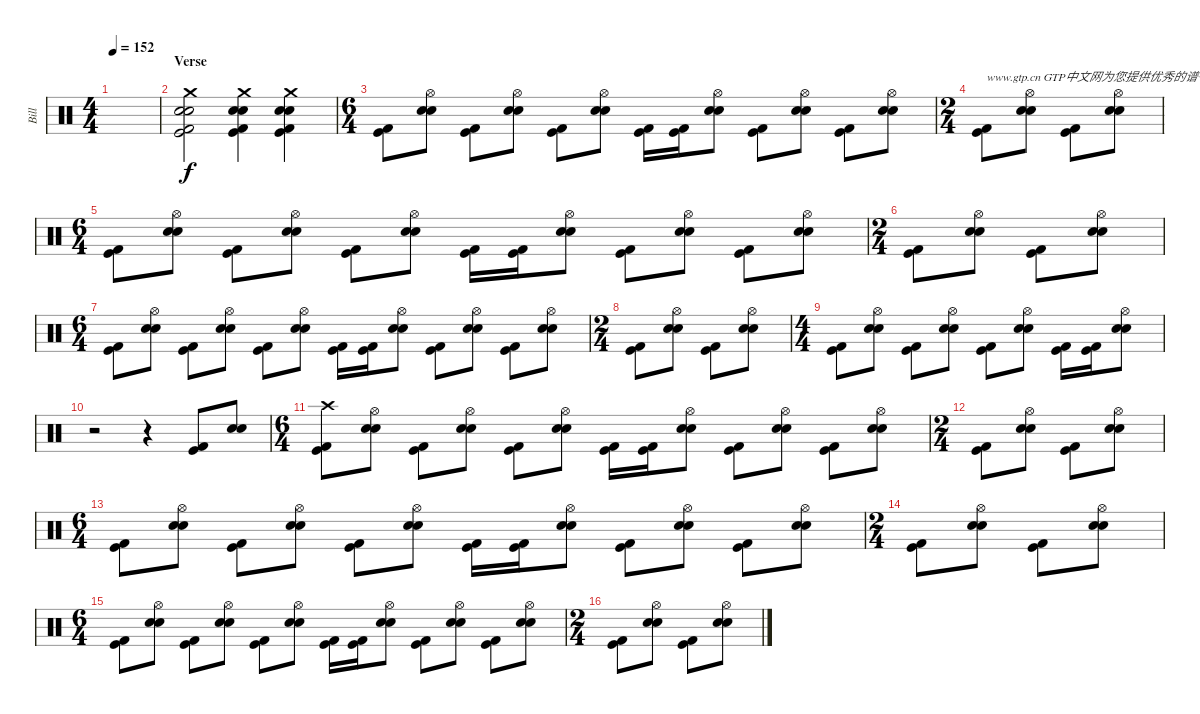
\track ("Bill" "Bill") {instrument percussion}
\staff {score}
\articulation defaults
\ts (4 4)
\tempo 152
\clef neutral
\ks c
|
\section ("" "Verse")
("Crash medium (hit)" "Snare (hit) 2" "Electric Snare (hit)" "Kick (hit)" "Kick (hit) 2").2 ("Crash medium (hit)" "Snare (hit) 2" "Electric Snare (hit)" "Kick (hit)" "Kick (hit) 2").4 ("Crash medium (hit)" "Snare (hit) 2" "Electric Snare (hit)" "Kick (hit)" "Kick (hit) 2").4 |
\ts (6 4)
("Kick (hit)" "Kick (hit) 2").8 ("Hi-Hat (open)" "Snare (hit) 2" "Electric Snare (hit)").8 ("Kick (hit)" "Kick (hit) 2").8 ("Hi-Hat (open)" "Snare (hit) 2" "Electric Snare (hit)").8 ("Kick (hit)" "Kick (hit) 2").8 ("Hi-Hat (open)" "Snare (hit) 2" "Electric Snare (hit)").8 ("Kick (hit)" "Kick (hit) 2").16 ("Kick (hit)" "Kick (hit) 2").16 ("Hi-Hat (open)" "Snare (hit) 2" "Electric Snare (hit)").8 ("Kick (hit)" "Kick (hit) 2").8 ("Hi-Hat (open)" "Snare (hit) 2" "Electric Snare (hit)").8 ("Kick (hit)" "Kick (hit) 2").8 ("Hi-Hat (open)" "Snare (hit) 2" "Electric Snare (hit)").8 |
\ts (2 4)
("Kick (hit)" "Kick (hit) 2").8{txt "www.gtp.cn GTP中文网为您提供优秀的谱子"} ("Hi-Hat (open)" "Snare (hit) 2" "Electric Snare (hit)").8 ("Kick (hit)" "Kick (hit) 2").8 ("Hi-Hat (open)" "Snare (hit) 2" "Electric Snare (hit)").8 |
\ts (6 4)
("Kick (hit)" "Kick (hit) 2").8 ("Hi-Hat (open)" "Snare (hit) 2" "Electric Snare (hit)").8 ("Kick (hit)" "Kick (hit) 2").8 ("Hi-Hat (open)" "Snare (hit) 2" "Electric Snare (hit)").8 ("Kick (hit)" "Kick (hit) 2").8 ("Hi-Hat (open)" "Snare (hit) 2" "Electric Snare (hit)").8 ("Kick (hit)" "Kick (hit) 2").16 ("Kick (hit)" "Kick (hit) 2").16 ("Hi-Hat (open)" "Snare (hit) 2" "Electric Snare (hit)").8 ("Kick (hit)" "Kick (hit) 2").8 ("Hi-Hat (open)" "Snare (hit) 2" "Electric Snare (hit)").8 ("Kick (hit)" "Kick (hit) 2").8 ("Hi-Hat (open)" "Snare (hit) 2" "Electric Snare (hit)").8 |
\ts (2 4)
("Kick (hit)" "Kick (hit) 2").8 ("Hi-Hat (open)" "Snare (hit) 2" "Electric Snare (hit)").8 ("Kick (hit)" "Kick (hit) 2").8 ("Hi-Hat (open)" "Snare (hit) 2" "Electric Snare (hit)").8 |
\ts (6 4)
("Kick (hit)" "Kick (hit) 2").8 ("Hi-Hat (open)" "Snare (hit) 2" "Electric Snare (hit)").8 ("Kick (hit)" "Kick (hit) 2").8 ("Hi-Hat (open)" "Snare (hit) 2" "Electric Snare (hit)").8 ("Kick (hit)" "Kick (hit) 2").8 ("Hi-Hat (open)" "Snare (hit) 2" "Electric Snare (hit)").8 ("Kick (hit)" "Kick (hit) 2").16 ("Kick (hit)" "Kick (hit) 2").16 ("Hi-Hat (open)" "Snare (hit) 2" "Electric Snare (hit)").8 ("Kick (hit)" "Kick (hit) 2").8 ("Hi-Hat (open)" "Snare (hit) 2" "Electric Snare (hit)").8 ("Kick (hit)" "Kick (hit) 2").8 ("Hi-Hat (open)" "Snare (hit) 2" "Electric Snare (hit)").8 |
\ts (2 4)
("Kick (hit)" "Kick (hit) 2").8 ("Hi-Hat (open)" "Snare (hit) 2" "Electric Snare (hit)").8 ("Kick (hit)" "Kick (hit) 2").8 ("Hi-Hat (open)" "Snare (hit) 2" "Electric Snare (hit)").8 |
\ts (4 4)
("Kick (hit)" "Kick (hit) 2").8 ("Hi-Hat (open)" "Snare (hit) 2" "Electric Snare (hit)").8 ("Kick (hit)" "Kick (hit) 2").8 ("Hi-Hat (open)" "Snare (hit) 2" "Electric Snare (hit)").8 ("Kick (hit)" "Kick (hit) 2").8 ("Hi-Hat (open)" "Snare (hit) 2" "Electric Snare (hit)").8 ("Kick (hit)" "Kick (hit) 2").16 ("Kick (hit)" "Kick (hit) 2").16 ("Hi-Hat (open)" "Snare (hit) 2" "Electric Snare (hit)").8 |
r.2 r.4 ("Kick (hit)" "Kick (hit) 2").8 ("Snare (hit) 2" "Electric Snare (hit)").8 |
\ts (6 4)
("Crash high (hit)" "Kick (hit)" "Kick (hit) 2").8 ("Hi-Hat (open)" "Snare (hit) 2" "Electric Snare (hit)").8 ("Kick (hit)" "Kick (hit) 2").8 ("Hi-Hat (open)" "Snare (hit) 2" "Electric Snare (hit)").8 ("Kick (hit)" "Kick (hit) 2").8 ("Hi-Hat (open)" "Snare (hit) 2" "Electric Snare (hit)").8 ("Kick (hit)" "Kick (hit) 2").16 ("Kick (hit)" "Kick (hit) 2").16 ("Hi-Hat (open)" "Snare (hit) 2" "Electric Snare (hit)").8 ("Kick (hit)" "Kick (hit) 2").8 ("Hi-Hat (open)" "Snare (hit) 2" "Electric Snare (hit)").8 ("Kick (hit)" "Kick (hit) 2").8 ("Hi-Hat (open)" "Snare (hit) 2" "Electric Snare (hit)").8 |
\ts (2 4)
("Kick (hit)" "Kick (hit) 2").8 ("Hi-Hat (open)" "Snare (hit) 2" "Electric Snare (hit)").8 ("Kick (hit)" "Kick (hit) 2").8 ("Hi-Hat (open)" "Snare (hit) 2" "Electric Snare (hit)").8 |
\ts (6 4)
("Kick (hit)" "Kick (hit) 2").8 ("Hi-Hat (open)" "Snare (hit) 2" "Electric Snare (hit)").8 ("Kick (hit)" "Kick (hit) 2").8 ("Hi-Hat (open)" "Snare (hit) 2" "Electric Snare (hit)").8 ("Kick (hit)" "Kick (hit) 2").8 ("Hi-Hat (open)" "Snare (hit) 2" "Electric Snare (hit)").8 ("Kick (hit)" "Kick (hit) 2").16 ("Kick (hit)" "Kick (hit) 2").16 ("Hi-Hat (open)" "Snare (hit) 2" "Electric Snare (hit)").8 ("Kick (hit)" "Kick (hit) 2").8 ("Hi-Hat (open)" "Snare (hit) 2" "Electric Snare (hit)").8 ("Kick (hit)" "Kick (hit) 2").8 ("Hi-Hat (open)" "Snare (hit) 2" "Electric Snare (hit)").8 |
\ts (2 4)
("Kick (hit)" "Kick (hit) 2").8 ("Hi-Hat (open)" "Snare (hit) 2" "Electric Snare (hit)").8 ("Kick (hit)" "Kick (hit) 2").8 ("Hi-Hat (open)" "Snare (hit) 2" "Electric Snare (hit)").8 |
\ts (6 4)
("Kick (hit)" "Kick (hit) 2").8 ("Hi-Hat (open)" "Snare (hit) 2" "Electric Snare (hit)").8 ("Kick (hit)" "Kick (hit) 2").8 ("Hi-Hat (open)" "Snare (hit) 2" "Electric Snare (hit)").8 ("Kick (hit)" "Kick (hit) 2").8 ("Hi-Hat (open)" "Snare (hit) 2" "Electric Snare (hit)").8 ("Kick (hit)" "Kick (hit) 2").16 ("Kick (hit)" "Kick (hit) 2").16 ("Hi-Hat (open)" "Snare (hit) 2" "Electric Snare (hit)").8 ("Kick (hit)" "Kick (hit) 2").8 ("Hi-Hat (open)" "Snare (hit) 2" "Electric Snare (hit)").8 ("Kick (hit)" "Kick (hit) 2").8 ("Hi-Hat (open)" "Snare (hit) 2" "Electric Snare (hit)").8 |
\ts (2 4)
("Kick (hit)" "Kick (hit) 2").8 ("Hi-Hat (open)" "Snare (hit) 2" "Electric Snare (hit)").8 ("Kick (hit)" "Kick (hit) 2").8 ("Hi-Hat (open)" "Snare (hit) 2" "Electric Snare (hit)").8
